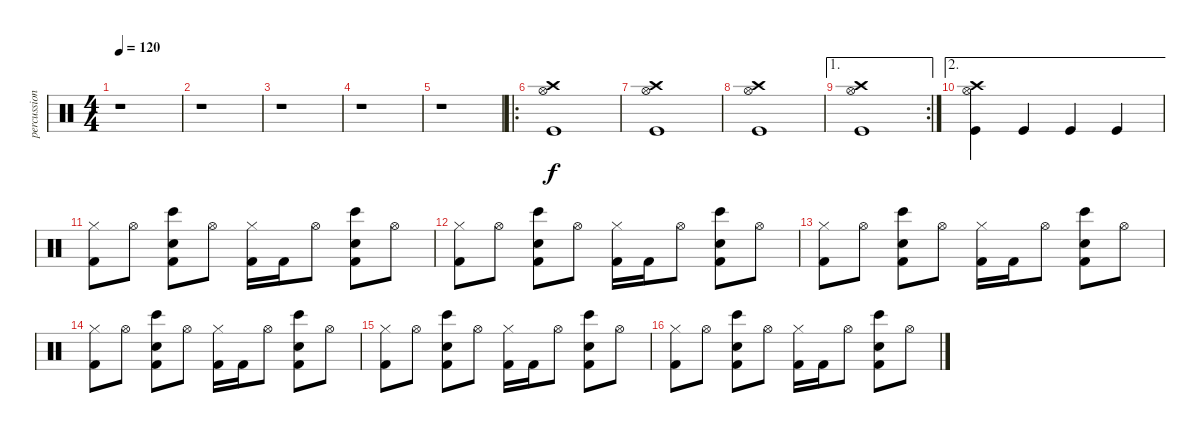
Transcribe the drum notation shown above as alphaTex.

\track ("percussion" "percussion") {instrument percussion}
\staff {score}
\articulation defaults
\ts (4 4)
\tempo 120
\clef neutral
\ks c
r.1{dy f} |
r.1 |
r.1 |
r.1 |
r.1 |
\ro
("Hi-Hat (open)" "Crash high (hit)" "Kick (hit)").1 |
("Hi-Hat (open)" "Crash high (hit)" "Kick (hit)").1 |
("Hi-Hat (open)" "Crash high (hit)" "Kick (hit)").1 |
\ae 1
\rc 2
("Hi-Hat (open)" "Crash high (hit)" "Kick (hit)").1 |
\ae 2
("Hi-Hat (open)" "Crash high (hit)" "Kick (hit)").4 "Kick (hit)".4 "Kick (hit)".4 "Kick (hit)".4 |
("Hi-Hat (closed)" "Kick (hit) 2").8 "Hi-Hat (open)".8 ("Hand Clap (hit)" "Bongo High (hit)" "Kick (hit) 2").8 "Hi-Hat (open)".8 ("Hi-Hat (closed)" "Kick (hit) 2").16 "Kick (hit) 2".16 "Hi-Hat (open)".8 ("Hand Clap (hit)" "Bongo High (hit)" "Kick (hit) 2").8 "Hi-Hat (open)".8 |
("Hi-Hat (closed)" "Kick (hit) 2").8 "Hi-Hat (open)".8 ("Hand Clap (hit)" "Bongo High (hit)" "Kick (hit) 2").8 "Hi-Hat (open)".8 ("Hi-Hat (closed)" "Kick (hit) 2").16 "Kick (hit) 2".16 "Hi-Hat (open)".8 ("Hand Clap (hit)" "Bongo High (hit)" "Kick (hit) 2").8 "Hi-Hat (open)".8 |
("Hi-Hat (closed)" "Kick (hit) 2").8 "Hi-Hat (open)".8 ("Hand Clap (hit)" "Bongo High (hit)" "Kick (hit) 2").8 "Hi-Hat (open)".8 ("Hi-Hat (closed)" "Kick (hit) 2").16 "Kick (hit) 2".16 "Hi-Hat (open)".8 ("Hand Clap (hit)" "Bongo High (hit)" "Kick (hit) 2").8 "Hi-Hat (open)".8 |
("Hi-Hat (closed)" "Kick (hit) 2").8 "Hi-Hat (open)".8 ("Hand Clap (hit)" "Bongo High (hit)" "Kick (hit) 2").8 "Hi-Hat (open)".8 ("Hi-Hat (closed)" "Kick (hit) 2").16 "Kick (hit) 2".16 "Hi-Hat (open)".8 ("Hand Clap (hit)" "Bongo High (hit)" "Kick (hit) 2").8 "Hi-Hat (open)".8 |
("Hi-Hat (closed)" "Kick (hit) 2").8 "Hi-Hat (open)".8 ("Hand Clap (hit)" "Bongo High (hit)" "Kick (hit) 2").8 "Hi-Hat (open)".8 ("Hi-Hat (closed)" "Kick (hit) 2").16 "Kick (hit) 2".16 "Hi-Hat (open)".8 ("Hand Clap (hit)" "Bongo High (hit)" "Kick (hit) 2").8 "Hi-Hat (open)".8 |
("Hi-Hat (closed)" "Kick (hit) 2").8 "Hi-Hat (open)".8 ("Hand Clap (hit)" "Bongo High (hit)" "Kick (hit) 2").8 "Hi-Hat (open)".8 ("Hi-Hat (closed)" "Kick (hit) 2").16 "Kick (hit) 2".16 "Hi-Hat (open)".8 ("Hand Clap (hit)" "Bongo High (hit)" "Kick (hit) 2").8 "Hi-Hat (open)".8
